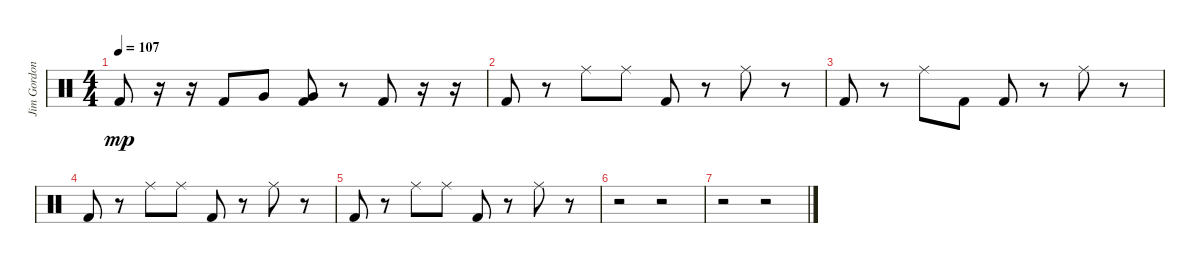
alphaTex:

\track ("Jim Gordon (Drums)" "Jim Gordon") {instrument percussion}
\staff {score}
\articulation defaults
\ts (4 4)
\tempo 107
\clef neutral
\ks c "Kick (hit) 2".8{dy mp}
r.16 r.16 "Kick (hit) 2".8 "Very Low Tom (hit)".8 ("Very Low Tom (hit)" "Kick (hit) 2").8 r.8 "Kick (hit) 2".8 r.16 r.16 |
"Kick (hit) 2".8 r.8 "Ride (middle)".8 "Ride (middle)".8 "Kick (hit) 2".8 r.8 "Ride (middle)".8 r.8 |
"Kick (hit) 2".8 r.8 "Ride (middle)".8 "Kick (hit) 2".8 "Kick (hit) 2".8 r.8 "Ride (middle)".8 r.8 |
"Kick (hit) 2".8 r.8 "Ride (middle)".8 "Ride (middle)".8 "Kick (hit) 2".8 r.8 "Ride (middle)".8 r.8 |
"Kick (hit) 2".8 r.8 "Ride (middle)".8 "Ride (middle)".8 "Kick (hit) 2".8 r.8 "Ride (middle)".8 r.8 |
r.2 r.2 |
r.2 r.2
